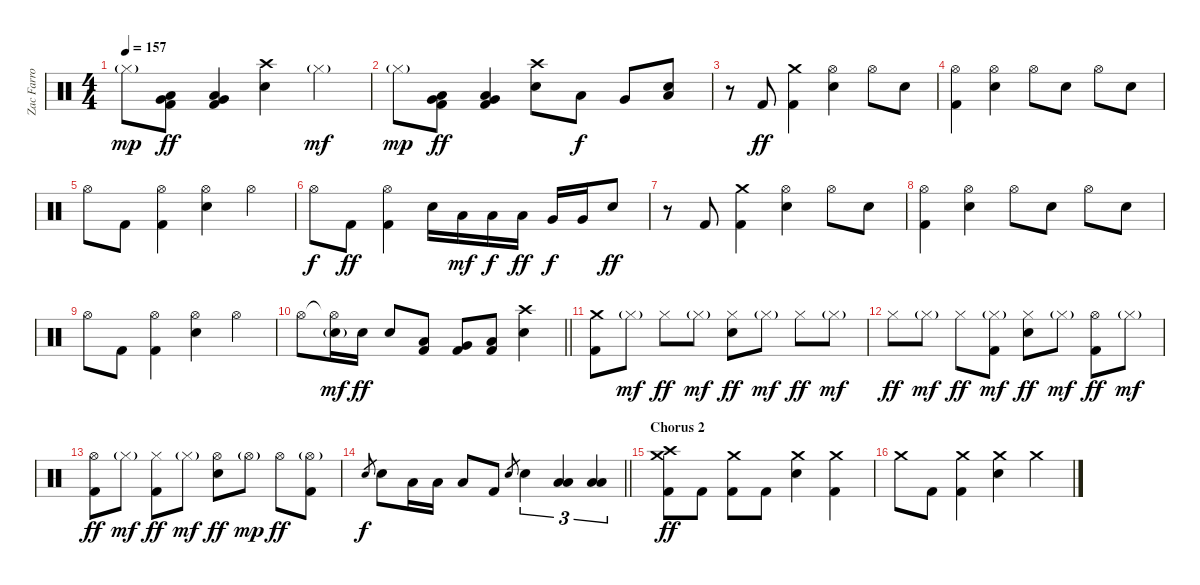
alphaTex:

\track ("Zac Farro | Drum" "Zac Farro ") {instrument percussion}
\staff {score}
\articulation defaults
\ts (4 4)
\tempo 157
\clef neutral
\ks c "Hi-Hat (closed)"{g}.8{dy mp}
("Very Low Tom (hit)" "Low Floor Tom (hit)" "Kick (hit) 2").8{dy ff} ("Very Low Tom (hit)" "Low Floor Tom (hit)" "Kick (hit) 2").4 ("Crash high (hit)" "Electric Snare (hit)").4 "Hi-Hat (closed)"{g}.4{dy mf} |
"Hi-Hat (closed)"{g}.8{dy mp} ("Very Low Tom (hit)" "Low Floor Tom (hit)" "Kick (hit) 2").8{dy ff} ("Very Low Tom (hit)" "Low Floor Tom (hit)" "Kick (hit) 2").4 ("Crash high (hit)" "Electric Snare (hit)").8 "Low Tom (hit)".8{dy f} "Very Low Tom (hit)".8 ("Low Floor Tom (hit)" "Electric Snare (hit)").8 |
r.8 "Kick (hit) 2".8{dy ff} ("Crash medium (hit)" "Kick (hit) 2").4 ("Hi-Hat (open)" "Electric Snare (hit)").4 "Hi-Hat (open)".8 "Electric Snare (hit)".8 |
("Hi-Hat (open)" "Kick (hit) 2").4 ("Hi-Hat (open)" "Electric Snare (hit)").4 "Hi-Hat (open)".8 "Electric Snare (hit)".8 "Hi-Hat (open)".8 "Electric Snare (hit)".8 |
"Hi-Hat (open)".8 "Kick (hit) 2".8 ("Hi-Hat (open)" "Kick (hit) 2").4 ("Hi-Hat (open)" "Electric Snare (hit)").4 "Hi-Hat (open)".4 |
"Hi-Hat (open)".8{dy f} "Kick (hit) 2".8{dy ff} ("Hi-Hat (open)" "Kick (hit) 2").4 "Electric Snare (hit)".16 "Low Tom (hit)".16{dy mf} "Low Tom (hit)".16{dy f} "Low Tom (hit)".16{dy ff} "Very Low Tom (hit)".16{dy f} "Very Low Tom (hit)".16 "Electric Snare (hit)".8{dy ff} |
r.8 "Kick (hit) 2".8 ("Crash medium (hit)" "Kick (hit) 2").4 ("Hi-Hat (open)" "Electric Snare (hit)").4 "Hi-Hat (open)".8 "Electric Snare (hit)".8 |
("Hi-Hat (open)" "Kick (hit) 2").4 ("Hi-Hat (open)" "Electric Snare (hit)").4 "Hi-Hat (open)".8 "Electric Snare (hit)".8 "Hi-Hat (open)".8 "Electric Snare (hit)".8 |
"Hi-Hat (open)".8 "Kick (hit) 2".8 ("Hi-Hat (open)" "Kick (hit) 2").4 ("Hi-Hat (open)" "Electric Snare (hit)").4 "Hi-Hat (open)".4 |
\barLineRight lightlight "Hi-Hat (open)".8
("Hi-Hat (open)"{t} "Electric Snare (hit)"{g}).16{dy mf} "Electric Snare (hit)".16{dy ff} "Electric Snare (hit)".8 ("Low Tom (hit)" "Kick (hit) 2").8 ("Very Low Tom (hit)" "Kick (hit) 2").8 ("Low Floor Tom (hit)" "Kick (hit) 2").8 ("Crash high (hit)" "Electric Snare (hit)").4 |
\section ("" "")
("Crash medium (hit)" "Kick (hit) 2").8 "Hi-Hat (closed)"{g}.8{dy mf} "Hi-Hat (closed)".8{dy ff} "Hi-Hat (closed)"{g}.8{dy mf} ("Hi-Hat (closed)" "Electric Snare (hit)").8{dy ff} "Hi-Hat (closed)"{g}.8{dy mf} "Hi-Hat (closed)".8{dy ff} "Hi-Hat (closed)"{g}.8{dy mf} |
"Hi-Hat (closed)".8{dy ff} "Hi-Hat (closed)"{g}.8{dy mf} "Hi-Hat (closed)".8{dy ff} ("Hi-Hat (closed)"{g} "Kick (hit) 2").8{dy mf} ("Hi-Hat (closed)" "Electric Snare (hit)").8{dy ff} "Hi-Hat (closed)"{g}.8{dy mf} ("Hi-Hat (open)" "Kick (hit) 2").8{dy ff} "Hi-Hat (closed)"{g}.8{dy mf} |
("Hi-Hat (open)" "Kick (hit) 2").8{dy ff} "Hi-Hat (closed)"{g}.8{dy mf} ("Hi-Hat (closed)" "Kick (hit) 2").8{dy ff} "Hi-Hat (closed)"{g}.8{dy mf} ("Hi-Hat (open)" "Electric Snare (hit)").8{dy ff} "Hi-Hat (open)"{g}.8{dy mp} "Hi-Hat (open)".8{dy ff} ("Hi-Hat (open)"{g} "Kick (hit) 2").8 |
\barLineRight lightlight "Electric Snare (hit)".8{gr dy f} "Electric Snare (hit)".8 "Low Tom (hit)".16 "Low Tom (hit)".16 "Low Tom (hit)".8 "Kick (hit) 2".8 "Electric Snare (hit)".8{gr} "Electric Snare (hit)".4{tu (3 2)}
("Low Tom (hit)" "Low Floor Tom (hit)").4{tu (3 2)} ("Low Tom (hit)" "Low Floor Tom (hit)").4{tu (3 2)} |
\section ("" "Chorus 2")
("Crash high (hit)" "Crash medium (hit)" "Kick (hit) 2").8{dy ff} "Kick (hit) 2".8 ("Crash medium (hit)" "Kick (hit) 2").8 "Kick (hit) 2".8 ("Crash medium (hit)" "Electric Snare (hit)").4 ("Crash medium (hit)" "Kick (hit) 2").4 |
"Crash medium (hit)".8 "Kick (hit) 2".8 ("Crash medium (hit)" "Kick (hit) 2").4 ("Crash medium (hit)" "Electric Snare (hit)").4 "Crash medium (hit)".4
